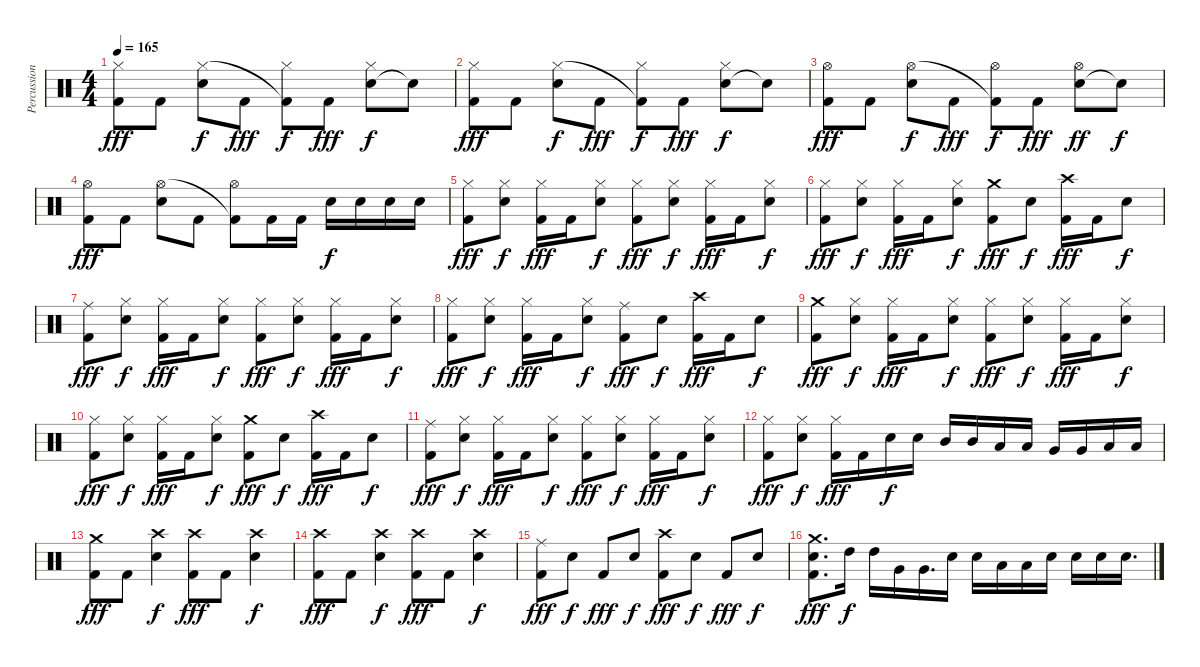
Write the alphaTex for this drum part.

\track ("Percussion" "Percussion") {instrument percussion}
\staff {score}
\articulation defaults
\ts (4 4)
\tempo 165
\clef neutral
\ks c
("Hi-Hat (closed)" "Kick (hit) 2").8{dy fff} "Kick (hit) 2".8 ("Electric Snare (hit)" "Hi-Hat (closed)").8{dy f} "Kick (hit) 2".8{dy fff} ("Hi-Hat (closed)" "Kick (hit) 2"{t}).8{dy f} "Kick (hit) 2".8{dy fff} ("Electric Snare (hit)" "Hi-Hat (closed)").8{dy f} "Electric Snare (hit)"{t}.8 |
("Hi-Hat (closed)" "Kick (hit) 2").8{dy fff} "Kick (hit) 2".8 ("Electric Snare (hit)" "Hi-Hat (closed)").8{dy f} "Kick (hit) 2".8{dy fff} ("Hi-Hat (closed)" "Kick (hit) 2"{t}).8{dy f} "Kick (hit) 2".8{dy fff} ("Electric Snare (hit)" "Hi-Hat (closed)").8{dy f} "Electric Snare (hit)"{t}.8 |
("Hi-Hat (open)" "Kick (hit) 2").8{dy fff} "Kick (hit) 2".8 ("Electric Snare (hit)" "Hi-Hat (open)").8{dy f} "Kick (hit) 2".8{dy fff} ("Hi-Hat (open)" "Kick (hit) 2"{t}).8{dy f} "Kick (hit) 2".8{dy fff} ("Electric Snare (hit)" "Hi-Hat (open)").8{dy ff} "Electric Snare (hit)"{t}.8{dy f} |
("Hi-Hat (open)" "Kick (hit) 2").8{dy fff} "Kick (hit) 2".8 ("Electric Snare (hit)" "Hi-Hat (open)").8 "Kick (hit) 2".8 ("Hi-Hat (open)" "Kick (hit) 2"{t}).8 "Kick (hit) 2".16 "Kick (hit) 2".16 "Electric Snare (hit)".16{dy f} "Electric Snare (hit)".16 "Electric Snare (hit)".16 "Electric Snare (hit)".16 |
("Hi-Hat (closed)" "Kick (hit) 2").8{dy fff} ("Hi-Hat (closed)" "Electric Snare (hit)").8{dy f} ("Hi-Hat (closed)" "Kick (hit) 2").16{dy fff} "Kick (hit) 2".16 ("Hi-Hat (closed)" "Electric Snare (hit)").8{dy f} ("Hi-Hat (closed)" "Kick (hit) 2").8{dy fff} ("Hi-Hat (closed)" "Electric Snare (hit)").8{dy f} ("Hi-Hat (closed)" "Kick (hit) 2").16{dy fff} "Kick (hit) 2".16 ("Hi-Hat (closed)" "Electric Snare (hit)").8{dy f} |
("Hi-Hat (closed)" "Kick (hit) 2").8{dy fff} ("Hi-Hat (closed)" "Electric Snare (hit)").8{dy f} ("Hi-Hat (closed)" "Kick (hit) 2").16{dy fff} "Kick (hit) 2".16 ("Hi-Hat (closed)" "Electric Snare (hit)").8{dy f} ("Crash medium (hit)" "Kick (hit) 2").8{dy fff} "Electric Snare (hit)".8{dy f} ("Crash high (hit)" "Kick (hit) 2").16{dy fff} "Kick (hit) 2".16 "Electric Snare (hit)".8{dy f} |
("Ride (middle)" "Kick (hit) 2").8{dy fff} ("Hi-Hat (closed)" "Electric Snare (hit)").8{dy f} ("Hi-Hat (closed)" "Kick (hit) 2").16{dy fff} "Kick (hit) 2".16 ("Hi-Hat (closed)" "Electric Snare (hit)").8{dy f} ("Hi-Hat (closed)" "Kick (hit) 2").8{dy fff} ("Hi-Hat (closed)" "Electric Snare (hit)").8{dy f} ("Hi-Hat (closed)" "Kick (hit) 2").16{dy fff} "Kick (hit) 2".16 ("Hi-Hat (closed)" "Electric Snare (hit)").8{dy f} |
("Hi-Hat (closed)" "Kick (hit) 2").8{dy fff} ("Hi-Hat (closed)" "Electric Snare (hit)").8{dy f} ("Hi-Hat (closed)" "Kick (hit) 2").16{dy fff} "Kick (hit) 2".16 ("Hi-Hat (closed)" "Electric Snare (hit)").8{dy f} ("Ride (middle)" "Kick (hit) 2").8{dy fff} "Electric Snare (hit)".8{dy f} ("Crash high (hit)" "Kick (hit) 2").16{dy fff} "Kick (hit) 2".16 "Electric Snare (hit)".8{dy f} |
("Crash medium (hit)" "Kick (hit) 2").8{dy fff} ("Hi-Hat (closed)" "Electric Snare (hit)").8{dy f} ("Hi-Hat (closed)" "Kick (hit) 2").16{dy fff} "Kick (hit) 2".16 ("Hi-Hat (closed)" "Electric Snare (hit)").8{dy f} ("Hi-Hat (closed)" "Kick (hit) 2").8{dy fff} ("Hi-Hat (closed)" "Electric Snare (hit)").8{dy f} ("Hi-Hat (closed)" "Kick (hit) 2").16{dy fff} "Kick (hit) 2".16 ("Hi-Hat (closed)" "Electric Snare (hit)").8{dy f} |
("Hi-Hat (closed)" "Kick (hit) 2").8{dy fff} ("Hi-Hat (closed)" "Electric Snare (hit)").8{dy f} ("Hi-Hat (closed)" "Kick (hit) 2").16{dy fff} "Kick (hit) 2".16 ("Hi-Hat (closed)" "Electric Snare (hit)").8{dy f} ("Crash medium (hit)" "Kick (hit) 2").8{dy fff} "Electric Snare (hit)".8{dy f} ("Crash high (hit)" "Kick (hit) 2").16{dy fff} "Kick (hit) 2".16 "Electric Snare (hit)".8{dy f} |
("Ride (middle)" "Kick (hit) 2").8{dy fff} ("Hi-Hat (closed)" "Electric Snare (hit)").8{dy f} ("Hi-Hat (closed)" "Kick (hit) 2").16{dy fff} "Kick (hit) 2".16 ("Hi-Hat (closed)" "Electric Snare (hit)").8{dy f} ("Hi-Hat (closed)" "Kick (hit) 2").8{dy fff} ("Hi-Hat (closed)" "Electric Snare (hit)").8{dy f} ("Hi-Hat (closed)" "Kick (hit) 2").16{dy fff} "Kick (hit) 2".16 ("Hi-Hat (closed)" "Electric Snare (hit)").8{dy f} |
("Hi-Hat (closed)" "Kick (hit) 2").8{dy fff} ("Hi-Hat (closed)" "Electric Snare (hit)").8{dy f} ("Hi-Hat (closed)" "Kick (hit) 2").16{dy fff} "Kick (hit) 2".16 "Electric Snare (hit)".16{dy f} "Electric Snare (hit)".16 "Mid Tom (hit)".16 "Mid Tom (hit)".16 "Low Tom (hit)".16 "Low Tom (hit)".16 "Very Low Tom (hit)".16 "Very Low Tom (hit)".16 "Low Floor Tom (hit)".16 "Low Floor Tom (hit)".16 |
("Crash medium (hit)" "Kick (hit) 2").8{dy fff} "Kick (hit) 2".8 ("Crash high (hit)" "Electric Snare (hit)").4{dy f} ("Crash high (hit)" "Kick (hit) 2").8{dy fff} "Kick (hit) 2".8 ("Crash high (hit)" "Electric Snare (hit)").4{dy f} |
("Crash high (hit)" "Kick (hit) 2").8{dy fff} "Kick (hit) 2".8 ("Crash high (hit)" "Electric Snare (hit)").4{dy f} ("Crash high (hit)" "Kick (hit) 2").8{dy fff} "Kick (hit) 2".8 ("Crash high (hit)" "Electric Snare (hit)").4{dy f} |
("Ride (middle)" "Kick (hit) 2").8{dy fff} "Electric Snare (hit)".8{dy f} "Kick (hit) 2".8{dy fff} "Electric Snare (hit)".8{dy f} ("Crash high (hit)" "Kick (hit) 2").8{dy fff} "Electric Snare (hit)".8{dy f} "Kick (hit) 2".8{dy fff} "Electric Snare (hit)".8{dy f} |
("Crash medium (hit)" "Electric Snare (hit)" "Kick (hit) 2").8{d dy fff} "High Tom (hit)".16{dy f} "High Tom (hit)".16 "Very Low Tom (hit)".16 "Very Low Tom (hit)".16{d} "Electric Snare (hit)".16 "Electric Snare (hit)".16 "Low Tom (hit)".16 "Low Tom (hit)".16 "Electric Snare (hit)".16 "Electric Snare (hit)".16 "Electric Snare (hit)".16 "Electric Snare (hit)".16{d}
